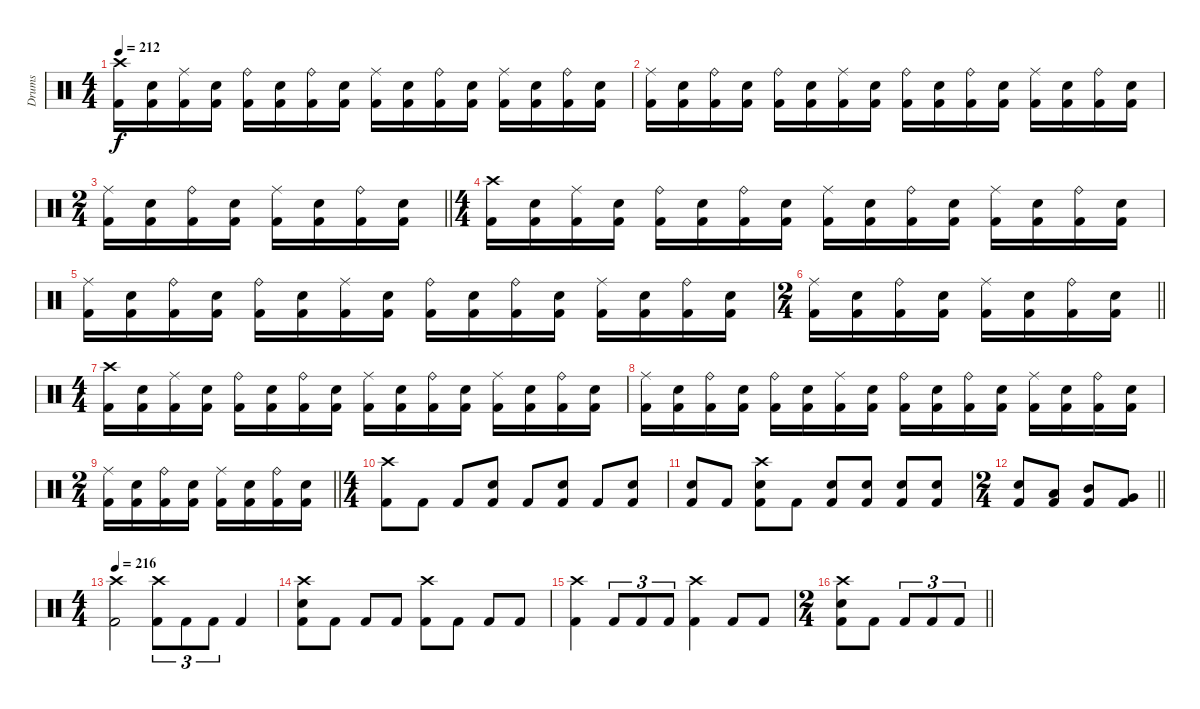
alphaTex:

\track ("Drums" "Drums") {instrument percussion}
\staff {score}
\articulation defaults
\ts (4 4)
\tempo 212
\clef neutral
\ks c
("Crash high (hit)" "Kick (hit) 2").16{dy f} ("Electric Snare (hit)" "Kick (hit) 2").16 ("Ride (middle)" "Kick (hit) 2").16 ("Electric Snare (hit)" "Kick (hit) 2").16 ("Ride (bell)" "Kick (hit) 2").16 ("Electric Snare (hit)" "Kick (hit) 2").16 ("Ride (bell)" "Kick (hit) 2").16 ("Electric Snare (hit)" "Kick (hit) 2").16 ("Ride (middle)" "Kick (hit) 2").16 ("Electric Snare (hit)" "Kick (hit) 2").16 ("Ride (bell)" "Kick (hit) 2").16 ("Electric Snare (hit)" "Kick (hit) 2").16 ("Ride (middle)" "Kick (hit) 2").16 ("Electric Snare (hit)" "Kick (hit) 2").16 ("Ride (bell)" "Kick (hit) 2").16 ("Electric Snare (hit)" "Kick (hit) 2").16 |
("Ride (middle)" "Kick (hit) 2").16 ("Electric Snare (hit)" "Kick (hit) 2").16 ("Ride (bell)" "Kick (hit) 2").16 ("Electric Snare (hit)" "Kick (hit) 2").16 ("Ride (bell)" "Kick (hit) 2").16 ("Electric Snare (hit)" "Kick (hit) 2").16 ("Ride (middle)" "Kick (hit) 2").16 ("Electric Snare (hit)" "Kick (hit) 2").16 ("Ride (bell)" "Kick (hit) 2").16 ("Electric Snare (hit)" "Kick (hit) 2").16 ("Ride (bell)" "Kick (hit) 2").16 ("Electric Snare (hit)" "Kick (hit) 2").16 ("Ride (middle)" "Kick (hit) 2").16 ("Electric Snare (hit)" "Kick (hit) 2").16 ("Ride (bell)" "Kick (hit) 2").16 ("Electric Snare (hit)" "Kick (hit) 2").16 |
\ts (2 4)
\barLineRight lightlight
("Ride (middle)" "Kick (hit) 2").16 ("Electric Snare (hit)" "Kick (hit) 2").16 ("Ride (bell)" "Kick (hit) 2").16 ("Electric Snare (hit)" "Kick (hit) 2").16 ("Ride (middle)" "Kick (hit) 2").16 ("Electric Snare (hit)" "Kick (hit) 2").16 ("Ride (bell)" "Kick (hit) 2").16 ("Electric Snare (hit)" "Kick (hit) 2").16 |
\ts (4 4)
("Crash high (hit)" "Kick (hit) 2").16 ("Electric Snare (hit)" "Kick (hit) 2").16 ("Ride (middle)" "Kick (hit) 2").16 ("Electric Snare (hit)" "Kick (hit) 2").16 ("Ride (bell)" "Kick (hit) 2").16 ("Electric Snare (hit)" "Kick (hit) 2").16 ("Ride (bell)" "Kick (hit) 2").16 ("Electric Snare (hit)" "Kick (hit) 2").16 ("Ride (middle)" "Kick (hit) 2").16 ("Electric Snare (hit)" "Kick (hit) 2").16 ("Ride (bell)" "Kick (hit) 2").16 ("Electric Snare (hit)" "Kick (hit) 2").16 ("Ride (middle)" "Kick (hit) 2").16 ("Electric Snare (hit)" "Kick (hit) 2").16 ("Ride (bell)" "Kick (hit) 2").16 ("Electric Snare (hit)" "Kick (hit) 2").16 |
("Ride (middle)" "Kick (hit) 2").16 ("Electric Snare (hit)" "Kick (hit) 2").16 ("Ride (bell)" "Kick (hit) 2").16 ("Electric Snare (hit)" "Kick (hit) 2").16 ("Ride (bell)" "Kick (hit) 2").16 ("Electric Snare (hit)" "Kick (hit) 2").16 ("Ride (middle)" "Kick (hit) 2").16 ("Electric Snare (hit)" "Kick (hit) 2").16 ("Ride (bell)" "Kick (hit) 2").16 ("Electric Snare (hit)" "Kick (hit) 2").16 ("Ride (bell)" "Kick (hit) 2").16 ("Electric Snare (hit)" "Kick (hit) 2").16 ("Ride (middle)" "Kick (hit) 2").16 ("Electric Snare (hit)" "Kick (hit) 2").16 ("Ride (bell)" "Kick (hit) 2").16 ("Electric Snare (hit)" "Kick (hit) 2").16 |
\ts (2 4)
\barLineRight lightlight
("Ride (middle)" "Kick (hit) 2").16 ("Electric Snare (hit)" "Kick (hit) 2").16 ("Ride (bell)" "Kick (hit) 2").16 ("Electric Snare (hit)" "Kick (hit) 2").16 ("Ride (middle)" "Kick (hit) 2").16 ("Electric Snare (hit)" "Kick (hit) 2").16 ("Ride (bell)" "Kick (hit) 2").16 ("Electric Snare (hit)" "Kick (hit) 2").16 |
\ts (4 4)
("Crash high (hit)" "Kick (hit) 2").16 ("Electric Snare (hit)" "Kick (hit) 2").16 ("Ride (middle)" "Kick (hit) 2").16 ("Electric Snare (hit)" "Kick (hit) 2").16 ("Ride (bell)" "Kick (hit) 2").16 ("Electric Snare (hit)" "Kick (hit) 2").16 ("Ride (bell)" "Kick (hit) 2").16 ("Electric Snare (hit)" "Kick (hit) 2").16 ("Ride (middle)" "Kick (hit) 2").16 ("Electric Snare (hit)" "Kick (hit) 2").16 ("Ride (bell)" "Kick (hit) 2").16 ("Electric Snare (hit)" "Kick (hit) 2").16 ("Ride (middle)" "Kick (hit) 2").16 ("Electric Snare (hit)" "Kick (hit) 2").16 ("Ride (bell)" "Kick (hit) 2").16 ("Electric Snare (hit)" "Kick (hit) 2").16 |
("Ride (middle)" "Kick (hit) 2").16 ("Electric Snare (hit)" "Kick (hit) 2").16 ("Ride (bell)" "Kick (hit) 2").16 ("Electric Snare (hit)" "Kick (hit) 2").16 ("Ride (bell)" "Kick (hit) 2").16 ("Electric Snare (hit)" "Kick (hit) 2").16 ("Ride (middle)" "Kick (hit) 2").16 ("Electric Snare (hit)" "Kick (hit) 2").16 ("Ride (bell)" "Kick (hit) 2").16 ("Electric Snare (hit)" "Kick (hit) 2").16 ("Ride (bell)" "Kick (hit) 2").16 ("Electric Snare (hit)" "Kick (hit) 2").16 ("Ride (middle)" "Kick (hit) 2").16 ("Electric Snare (hit)" "Kick (hit) 2").16 ("Ride (bell)" "Kick (hit) 2").16 ("Electric Snare (hit)" "Kick (hit) 2").16 |
\ts (2 4)
\barLineRight lightlight
("Ride (middle)" "Kick (hit) 2").16 ("Electric Snare (hit)" "Kick (hit) 2").16 ("Ride (bell)" "Kick (hit) 2").16 ("Electric Snare (hit)" "Kick (hit) 2").16 ("Ride (middle)" "Kick (hit) 2").16 ("Electric Snare (hit)" "Kick (hit) 2").16 ("Ride (bell)" "Kick (hit) 2").16 ("Electric Snare (hit)" "Kick (hit) 2").16 |
\ts (4 4)
("Crash high (hit)" "Kick (hit) 2").8 "Kick (hit) 2".8 "Kick (hit) 2".8 ("Electric Snare (hit)" "Kick (hit) 2").8 "Kick (hit) 2".8 ("Electric Snare (hit)" "Kick (hit) 2").8 "Kick (hit) 2".8 ("Electric Snare (hit)" "Kick (hit) 2").8 |
("Electric Snare (hit)" "Kick (hit) 2").8 "Kick (hit) 2".8 ("Crash high (hit)" "Electric Snare (hit)" "Kick (hit) 2").8 "Kick (hit) 2".8 ("Electric Snare (hit)" "Kick (hit) 2").8 ("Electric Snare (hit)" "Kick (hit) 2").8 ("Electric Snare (hit)" "Kick (hit) 2").8 ("Electric Snare (hit)" "Kick (hit) 2").8 |
\ts (2 4)
\barLineRight lightlight
("Electric Snare (hit)" "Kick (hit) 2").8 ("Low Tom (hit)" "Kick (hit) 2").8 ("Mid Tom (hit)" "Kick (hit) 2").8 ("Very Low Tom (hit)" "Kick (hit) 2").8 |
\ts (4 4)
\tempo 216
("Crash high (hit)" "Kick (hit) 2").2 ("Crash high (hit)" "Kick (hit) 2").8{tu (3 2)} "Kick (hit) 2".8{tu (3 2)} "Kick (hit) 2".8{tu (3 2)} "Kick (hit) 2".4 |
("Crash high (hit)" "Electric Snare (hit)" "Kick (hit) 2").8 "Kick (hit) 2".8 "Kick (hit) 2".8 "Kick (hit) 2".8 ("Crash high (hit)" "Kick (hit) 2").8 "Kick (hit) 2".8 "Kick (hit) 2".8 "Kick (hit) 2".8 |
("Crash high (hit)" "Kick (hit) 2").4 "Kick (hit) 2".8{tu (3 2)} "Kick (hit) 2".8{tu (3 2)} "Kick (hit) 2".8{tu (3 2)} ("Crash high (hit)" "Kick (hit) 2").4 "Kick (hit) 2".8 "Kick (hit) 2".8 |
\ts (2 4)
\barLineRight lightlight
("Crash high (hit)" "Electric Snare (hit)" "Kick (hit) 2").8 "Kick (hit) 2".8 "Kick (hit) 2".8{tu (3 2)} "Kick (hit) 2".8{tu (3 2)} "Kick (hit) 2".8{tu (3 2)}
